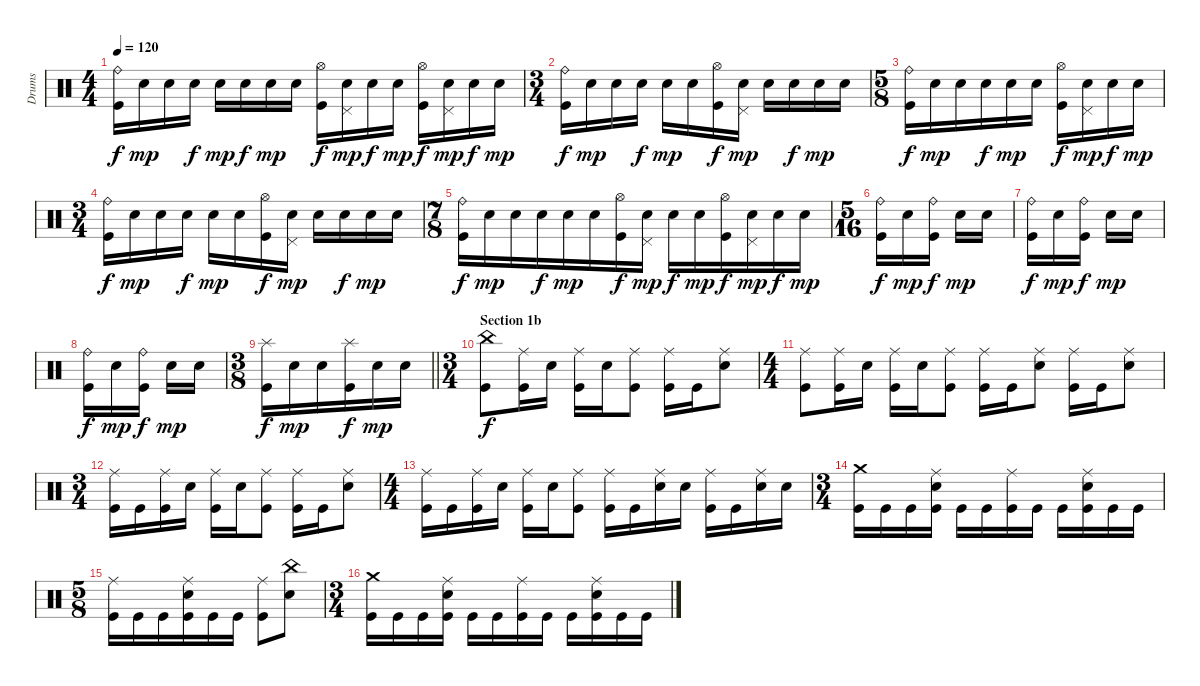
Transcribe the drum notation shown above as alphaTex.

\track ("Drums" "Drums") {instrument percussion}
\staff {score}
\articulation defaults
\ts (4 4)
\tempo 120
\clef neutral
\ks c
("Ride (bell)" "Kick (hit)").16{dy f} "Snare (hit) 2".16{dy mp} "Snare (hit) 2".16 "Snare (hit) 2".16{dy f} "Snare (hit) 2".16{dy mp} "Snare (hit) 2".16{dy f} "Snare (hit) 2".16{dy mp} "Snare (hit) 2".16 ("Hi-Hat (open)" "Kick (hit)").16{dy f} ("Pedal Hi-Hat (hit)" "Snare (hit) 2").16{dy mp} "Snare (hit) 2".16{dy f} "Snare (hit) 2".16{dy mp} ("Hi-Hat (open)" "Kick (hit)").16{dy f} ("Pedal Hi-Hat (hit)" "Snare (hit) 2").16{dy mp} "Snare (hit) 2".16{dy f} "Snare (hit) 2".16{dy mp} |
\ts (3 4)
("Ride (bell)" "Kick (hit)").16{dy f} "Snare (hit) 2".16{dy mp} "Snare (hit) 2".16 "Snare (hit) 2".16{dy f} "Snare (hit) 2".16{dy mp} "Snare (hit) 2".16 ("Hi-Hat (open)" "Kick (hit)").16{dy f} ("Pedal Hi-Hat (hit)" "Snare (hit) 2").16{dy mp} "Snare (hit) 2".16 "Snare (hit) 2".16{dy f} "Snare (hit) 2".16{dy mp} "Snare (hit) 2".16 |
\ts (5 8)
("Ride (bell)" "Kick (hit)").16{dy f} "Snare (hit) 2".16{dy mp} "Snare (hit) 2".16 "Snare (hit) 2".16{dy f} "Snare (hit) 2".16{dy mp} "Snare (hit) 2".16 ("Hi-Hat (open)" "Kick (hit)").16{dy f} ("Pedal Hi-Hat (hit)" "Snare (hit) 2").16{dy mp} "Snare (hit) 2".16{dy f} "Snare (hit) 2".16{dy mp} |
\ts (3 4)
("Ride (bell)" "Kick (hit)").16{dy f} "Snare (hit) 2".16{dy mp} "Snare (hit) 2".16 "Snare (hit) 2".16{dy f} "Snare (hit) 2".16{dy mp} "Snare (hit) 2".16 ("Hi-Hat (open)" "Kick (hit)").16{dy f} ("Pedal Hi-Hat (hit)" "Snare (hit) 2").16{dy mp} "Snare (hit) 2".16 "Snare (hit) 2".16{dy f} "Snare (hit) 2".16{dy mp} "Snare (hit) 2".16 |
\ts (7 8)
("Ride (bell)" "Kick (hit)").16{dy f} "Snare (hit) 2".16{dy mp} "Snare (hit) 2".16 "Snare (hit) 2".16{dy f} "Snare (hit) 2".16{dy mp} "Snare (hit) 2".16 ("Hi-Hat (open)" "Kick (hit)").16{dy f} ("Pedal Hi-Hat (hit)" "Snare (hit) 2").16{dy mp} "Snare (hit) 2".16{dy f} "Snare (hit) 2".16{dy mp} ("Hi-Hat (open)" "Kick (hit)").16{dy f} ("Pedal Hi-Hat (hit)" "Snare (hit) 2").16{dy mp} "Snare (hit) 2".16{dy f} "Snare (hit) 2".16{dy mp} |
\ts (5 16)
("Ride (bell)" "Kick (hit)").16{dy f} "Snare (hit) 2".16{dy mp} ("Ride (bell)" "Kick (hit)").16{dy f} "Snare (hit) 2".16{dy mp} "Snare (hit) 2".16 |
("Ride (bell)" "Kick (hit)").16{dy f} "Snare (hit) 2".16{dy mp} ("Ride (bell)" "Kick (hit)").16{dy f} "Snare (hit) 2".16{dy mp} "Snare (hit) 2".16 |
("Ride (bell)" "Kick (hit)").16{dy f} "Snare (hit) 2".16{dy mp} ("Ride (bell)" "Kick (hit)").16{dy f} "Snare (hit) 2".16{dy mp} "Snare (hit) 2".16 |
\ts (3 8)
\barLineRight lightlight
("Splash (hit)" "Kick (hit)").16{dy f} "Snare (hit) 2".16{dy mp} "Snare (hit) 2".16 ("Splash (hit)" "Kick (hit)").16{dy f} "Snare (hit) 2".16{dy mp} "Snare (hit) 2".16 |
\ts (3 4)
\section ("" "Section 1b")
("China (hit)" "Kick (hit)").8{dy f} ("Ride (middle)" "Kick (hit)").16 "Snare (hit) 2".16 ("Ride (middle)" "Kick (hit)").16 "Snare (hit) 2".16 ("Ride (middle)" "Kick (hit)").8 ("Ride (middle)" "Kick (hit)").16 "Kick (hit)".16 ("Ride (middle)" "Snare (hit) 2").8 |
\ts (4 4)
("Ride (middle)" "Kick (hit)").8 ("Ride (middle)" "Kick (hit)").16 "Snare (hit) 2".16 ("Ride (middle)" "Kick (hit)").16 "Snare (hit) 2".16 ("Ride (middle)" "Kick (hit)").8 ("Ride (middle)" "Kick (hit)").16 "Kick (hit)".16 ("Ride (middle)" "Snare (hit) 2").8 ("Ride (middle)" "Kick (hit)").16 "Kick (hit)".16 ("Ride (middle)" "Snare (hit) 2").8 |
\ts (3 4)
("Ride (middle)" "Kick (hit)").16 "Kick (hit)".16 ("Ride (middle)" "Kick (hit)").16 "Snare (hit) 2".16 ("Ride (middle)" "Kick (hit)").16 "Snare (hit) 2".16 ("Ride (middle)" "Kick (hit)").8 ("Ride (middle)" "Kick (hit)").16 "Kick (hit)".16 ("Ride (middle)" "Snare (hit) 2").8 |
\ts (4 4)
("Ride (middle)" "Kick (hit)").16 "Kick (hit)".16 ("Ride (middle)" "Kick (hit)").16 "Snare (hit) 2".16 ("Ride (middle)" "Kick (hit)").16 "Snare (hit) 2".16 ("Ride (middle)" "Kick (hit)").8 ("Ride (middle)" "Kick (hit)").16 "Kick (hit)".16 ("Ride (middle)" "Snare (hit) 2").16 "Snare (hit) 2".16 ("Ride (middle)" "Kick (hit)").16 "Kick (hit)".16 ("Ride (middle)" "Snare (hit) 2").16 "Snare (hit) 2".16 |
\ts (3 4)
("Crash medium (hit)" "Kick (hit)").16 "Kick (hit)".16 "Kick (hit)".16 ("Ride (middle)" "Snare (hit) 2" "Kick (hit)").16 "Kick (hit)".16 "Kick (hit)".16 ("Ride (middle)" "Kick (hit)").16 "Kick (hit)".16 "Kick (hit)".16 ("Ride (middle)" "Snare (hit) 2" "Kick (hit)").16 "Kick (hit)".16 "Kick (hit)".16 |
\ts (5 8)
("Ride (middle)" "Kick (hit)").16 "Kick (hit)".16 "Kick (hit)".16 ("Ride (middle)" "Snare (hit) 2" "Kick (hit)").16 "Kick (hit)".16 "Kick (hit)".16 ("Ride (middle)" "Kick (hit)").8 ("China (hit)" "Snare (hit) 2").8 |
\ts (3 4)
("Crash medium (hit)" "Kick (hit)").16 "Kick (hit)".16 "Kick (hit)".16 ("Ride (middle)" "Snare (hit) 2" "Kick (hit)").16 "Kick (hit)".16 "Kick (hit)".16 ("Ride (middle)" "Kick (hit)").16 "Kick (hit)".16 "Kick (hit)".16 ("Ride (middle)" "Snare (hit) 2" "Kick (hit)").16 "Kick (hit)".16 "Kick (hit)".16
